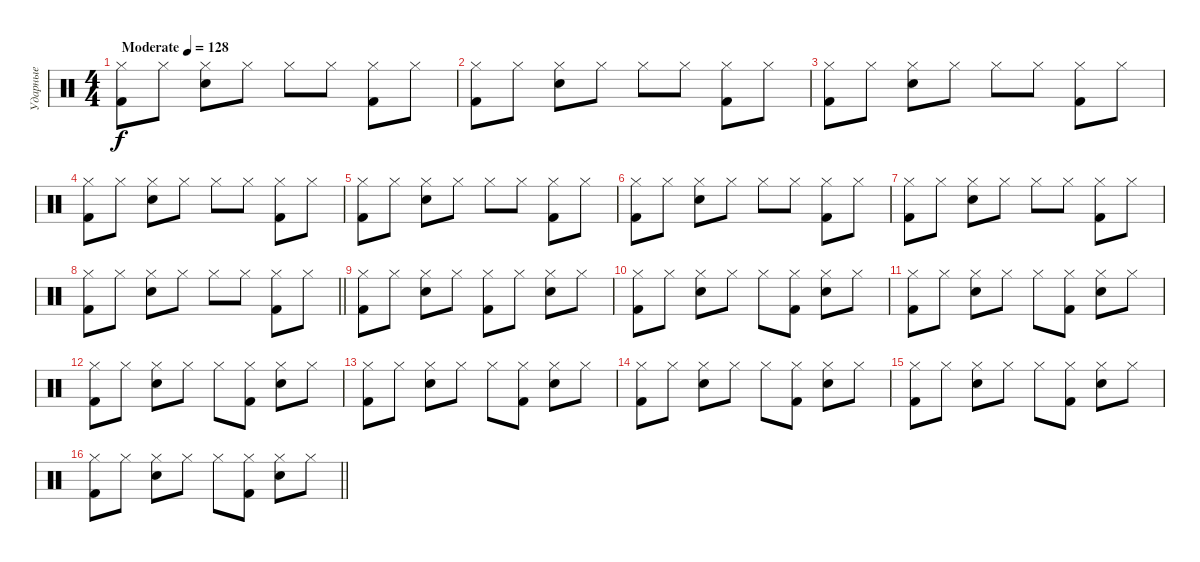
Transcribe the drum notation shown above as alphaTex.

\track ("Ударные" "Ударные") {instrument percussion}
\staff {score}
\articulation defaults
\ts (4 4)
\tempo (128 "Moderate")
\clef neutral
\ks c
("Hi-Hat (closed)" "Kick (hit) 2").8{dy f} "Hi-Hat (closed)".8 ("Hi-Hat (closed)" "Snare (hit) 2").8 "Hi-Hat (closed)".8 "Hi-Hat (closed)".8 "Hi-Hat (closed)".8 ("Hi-Hat (closed)" "Kick (hit) 2").8 "Hi-Hat (closed)".8 |
("Hi-Hat (closed)" "Kick (hit) 2").8 "Hi-Hat (closed)".8 ("Hi-Hat (closed)" "Snare (hit) 2").8 "Hi-Hat (closed)".8 "Hi-Hat (closed)".8 "Hi-Hat (closed)".8 ("Hi-Hat (closed)" "Kick (hit) 2").8 "Hi-Hat (closed)".8 |
("Hi-Hat (closed)" "Kick (hit) 2").8 "Hi-Hat (closed)".8 ("Hi-Hat (closed)" "Snare (hit) 2").8 "Hi-Hat (closed)".8 "Hi-Hat (closed)".8 "Hi-Hat (closed)".8 ("Hi-Hat (closed)" "Kick (hit) 2").8 "Hi-Hat (closed)".8 |
("Hi-Hat (closed)" "Kick (hit) 2").8 "Hi-Hat (closed)".8 ("Hi-Hat (closed)" "Snare (hit) 2").8 "Hi-Hat (closed)".8 "Hi-Hat (closed)".8 "Hi-Hat (closed)".8 ("Hi-Hat (closed)" "Kick (hit) 2").8 "Hi-Hat (closed)".8 |
("Hi-Hat (closed)" "Kick (hit) 2").8 "Hi-Hat (closed)".8 ("Hi-Hat (closed)" "Snare (hit) 2").8 "Hi-Hat (closed)".8 "Hi-Hat (closed)".8 "Hi-Hat (closed)".8 ("Hi-Hat (closed)" "Kick (hit) 2").8 "Hi-Hat (closed)".8 |
("Hi-Hat (closed)" "Kick (hit) 2").8 "Hi-Hat (closed)".8 ("Hi-Hat (closed)" "Snare (hit) 2").8 "Hi-Hat (closed)".8 "Hi-Hat (closed)".8 "Hi-Hat (closed)".8 ("Hi-Hat (closed)" "Kick (hit) 2").8 "Hi-Hat (closed)".8 |
("Hi-Hat (closed)" "Kick (hit) 2").8 "Hi-Hat (closed)".8 ("Hi-Hat (closed)" "Snare (hit) 2").8 "Hi-Hat (closed)".8 "Hi-Hat (closed)".8 "Hi-Hat (closed)".8 ("Hi-Hat (closed)" "Kick (hit) 2").8 "Hi-Hat (closed)".8 |
\barLineRight lightlight
("Hi-Hat (closed)" "Kick (hit) 2").8 "Hi-Hat (closed)".8 ("Hi-Hat (closed)" "Snare (hit) 2").8 "Hi-Hat (closed)".8 "Hi-Hat (closed)".8 "Hi-Hat (closed)".8 ("Hi-Hat (closed)" "Kick (hit) 2").8 "Hi-Hat (closed)".8 |
("Hi-Hat (closed)" "Kick (hit) 2").8 "Hi-Hat (closed)".8 ("Hi-Hat (closed)" "Snare (hit) 2").8 "Hi-Hat (closed)".8 ("Hi-Hat (closed)" "Kick (hit) 2").8 "Hi-Hat (closed)".8 ("Hi-Hat (closed)" "Snare (hit) 2").8 "Hi-Hat (closed)".8 |
("Hi-Hat (closed)" "Kick (hit) 2").8 "Hi-Hat (closed)".8 ("Hi-Hat (closed)" "Snare (hit) 2").8 "Hi-Hat (closed)".8 "Hi-Hat (closed)".8 ("Hi-Hat (closed)" "Kick (hit) 2").8 ("Hi-Hat (closed)" "Snare (hit) 2").8 "Hi-Hat (closed)".8 |
("Hi-Hat (closed)" "Kick (hit) 2").8 "Hi-Hat (closed)".8 ("Hi-Hat (closed)" "Snare (hit) 2").8 "Hi-Hat (closed)".8 "Hi-Hat (closed)".8 ("Hi-Hat (closed)" "Kick (hit) 2").8 ("Hi-Hat (closed)" "Snare (hit) 2").8 "Hi-Hat (closed)".8 |
("Hi-Hat (closed)" "Kick (hit) 2").8 "Hi-Hat (closed)".8 ("Hi-Hat (closed)" "Snare (hit) 2").8 "Hi-Hat (closed)".8 "Hi-Hat (closed)".8 ("Hi-Hat (closed)" "Kick (hit) 2").8 ("Hi-Hat (closed)" "Snare (hit) 2").8 "Hi-Hat (closed)".8 |
("Hi-Hat (closed)" "Kick (hit) 2").8 "Hi-Hat (closed)".8 ("Hi-Hat (closed)" "Snare (hit) 2").8 "Hi-Hat (closed)".8 "Hi-Hat (closed)".8 ("Hi-Hat (closed)" "Kick (hit) 2").8 ("Hi-Hat (closed)" "Snare (hit) 2").8 "Hi-Hat (closed)".8 |
("Hi-Hat (closed)" "Kick (hit) 2").8 "Hi-Hat (closed)".8 ("Hi-Hat (closed)" "Snare (hit) 2").8 "Hi-Hat (closed)".8 "Hi-Hat (closed)".8 ("Hi-Hat (closed)" "Kick (hit) 2").8 ("Hi-Hat (closed)" "Snare (hit) 2").8 "Hi-Hat (closed)".8 |
("Hi-Hat (closed)" "Kick (hit) 2").8 "Hi-Hat (closed)".8 ("Hi-Hat (closed)" "Snare (hit) 2").8 "Hi-Hat (closed)".8 "Hi-Hat (closed)".8 ("Hi-Hat (closed)" "Kick (hit) 2").8 ("Hi-Hat (closed)" "Snare (hit) 2").8 "Hi-Hat (closed)".8 |
\barLineRight lightlight
("Hi-Hat (closed)" "Kick (hit) 2").8 "Hi-Hat (closed)".8 ("Hi-Hat (closed)" "Snare (hit) 2").8 "Hi-Hat (closed)".8 "Hi-Hat (closed)".8 ("Hi-Hat (closed)" "Kick (hit) 2").8 ("Hi-Hat (closed)" "Snare (hit) 2").8 "Hi-Hat (closed)".8
